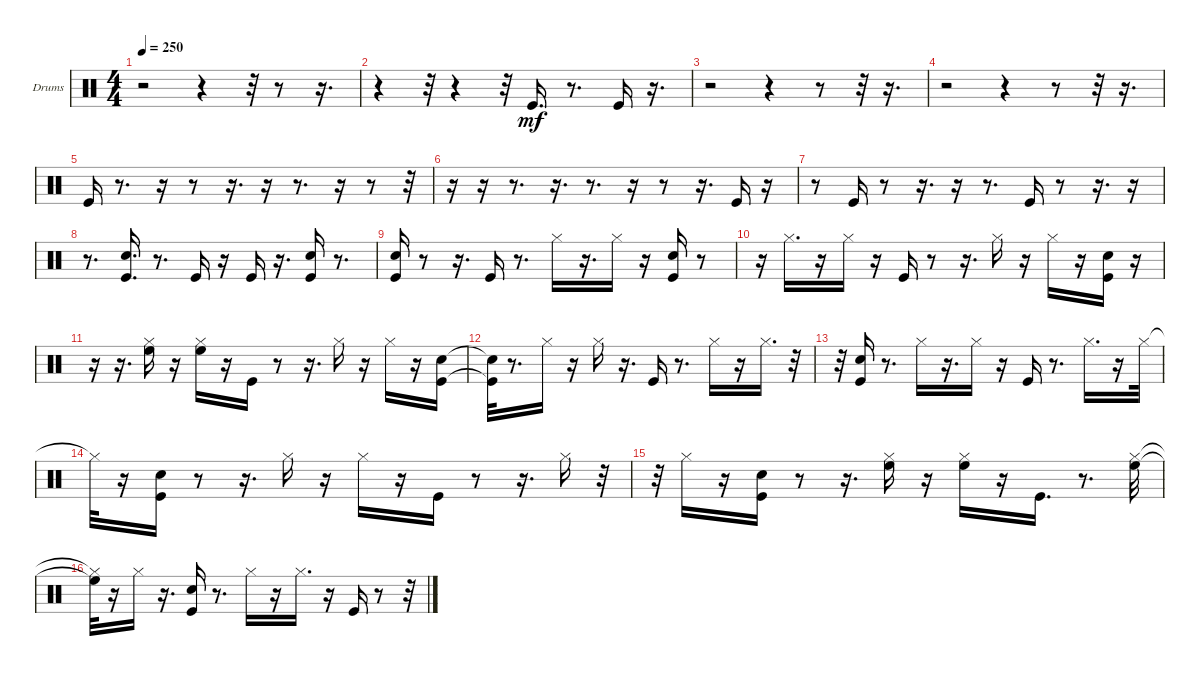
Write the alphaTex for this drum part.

\bracketExtendMode groupsimilarinstruments
\firstSystemTrackNameOrientation horizontal
\otherSystemsTrackNameOrientation horizontal
\track ("Drums" "Drums") {instrument percussion}
\staff {score}
\articulation defaults
\ts (4 4)
\tempo 250
\clef neutral
\ks c
r.2{dy mf} r.4 r.32 r.8 r.16{d} |
r.4 r.32 r.4 r.32 "Kick (hit)".16{d} r.8{d} "Kick (hit)".16 r.16{d} |
r.2 r.4 r.8 r.32 r.16{d} |
r.2 r.4 r.8 r.32 r.16{d} |
"Kick (hit)".16 r.8{d} r.16 r.8 r.16{d} r.16 r.8{d} r.16 r.8 r.32 |
r.16 r.16 r.8{d} r.16{d} r.8{d} r.16 r.8 r.16{d} "Kick (hit)".16 r.16 |
r.8 "Kick (hit)".16 r.8 r.16{d} r.16 r.8{d} "Kick (hit)".16 r.8 r.16{d} r.16 |
r.8{d} ("Kick (hit)" "Snare (hit) 2").16{d} r.8{d} "Kick (hit)".16 r.16 "Kick (hit)".16 r.16{d} ("Kick (hit)" "Snare (hit) 2").16 r.8{d} |
("Kick (hit)" "Snare (hit) 2").16 r.8 r.16{d} "Kick (hit)".16 r.8{d} "Hi-Hat (closed)".16 r.16{d} "Hi-Hat (closed)".16 r.16 ("Kick (hit)" "Snare (hit) 2").16 r.8 |
r.16 "Hi-Hat (closed)".16{d} r.16 "Hi-Hat (closed)".16 r.16 "Kick (hit)".16 r.8 r.16{d} "Hi-Hat (closed)".16 r.16 "Hi-Hat (closed)".16 r.16 ("Kick (hit)" "Snare (hit) 2").16 r.16 |
r.16 r.16{d} ("High Floor Tom (hit)" "Hi-Hat (closed)").16 r.16 ("High Floor Tom (hit)" "Hi-Hat (closed)").16 r.16 "Kick (hit)".16 r.8 r.16{d} "Hi-Hat (closed)".16 r.16 "Hi-Hat (closed)".16 r.16 ("Kick (hit)" "Snare (hit) 2").16 |
("Kick (hit)"{t} "Snare (hit) 2"{t}).32 r.8{d} "Hi-Hat (closed)".16 r.16 "Hi-Hat (closed)".16 r.16{d} "Kick (hit)".16 r.8{d} "Hi-Hat (closed)".16 r.16 "Hi-Hat (closed)".16{d} r.32 |
r.32 ("Kick (hit)" "Snare (hit) 2").16 r.8{d} "Hi-Hat (closed)".16 r.16{d} "Hi-Hat (closed)".16 r.16 "Kick (hit)".16 r.8{d} "Hi-Hat (closed)".16{d} r.16 "Hi-Hat (closed)".32 |
"Hi-Hat (closed)"{t}.32 r.16 ("Kick (hit)" "Snare (hit) 2").16 r.8 r.16{d} "Hi-Hat (closed)".16 r.16 "Hi-Hat (closed)".16 r.16 "Kick (hit)".16 r.8 r.16{d} "Hi-Hat (closed)".16 r.32 |
r.32 "Hi-Hat (closed)".16 r.16 ("Kick (hit)" "Snare (hit) 2").16 r.8 r.16{d} ("High Floor Tom (hit)" "Hi-Hat (closed)").16 r.16 ("High Floor Tom (hit)" "Hi-Hat (closed)").16 r.16 "Kick (hit)".16{d} r.8{d} ("High Floor Tom (hit)" "Hi-Hat (closed)").32 |
("High Floor Tom (hit)"{t} "Hi-Hat (closed)"{t}).32 r.16 "Hi-Hat (closed)".16 r.16{d} ("Kick (hit)" "Snare (hit) 2").16 r.8{d} "Hi-Hat (closed)".16 r.16 "Hi-Hat (closed)".16{d} r.16 "Kick (hit)".16 r.8 r.32
